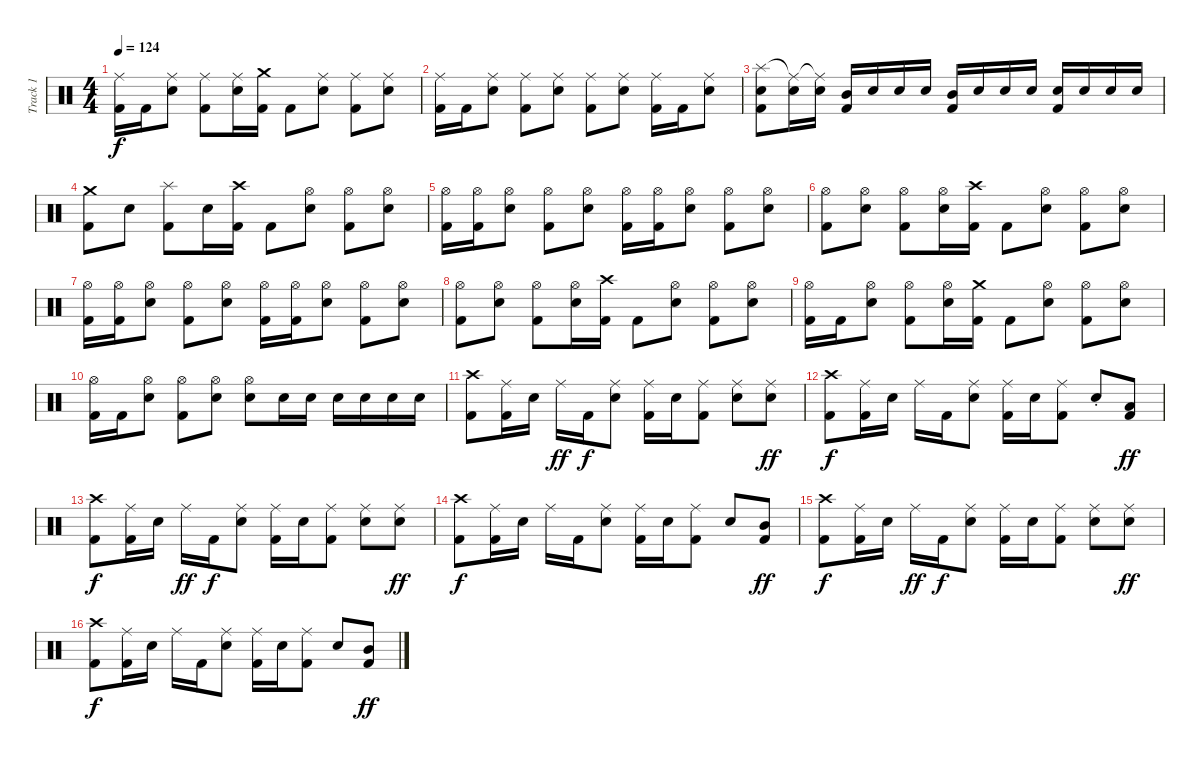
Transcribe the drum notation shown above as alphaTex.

\track ("Track 1" "Track 1") {instrument percussion}
\staff {score}
\articulation defaults
\ts (4 4)
\tempo 124
\clef neutral
\ks c
("Ride (middle)" "Kick (hit) 2").16{dy f} "Kick (hit) 2".16 ("Ride (middle)" "Electric Snare (hit)").8 ("Ride (middle)" "Kick (hit) 2").8 ("Ride (middle)" "Electric Snare (hit)").16 ("Crash medium (hit)" "Kick (hit) 2").16 "Kick (hit) 2".8 ("Ride (middle)" "Electric Snare (hit)").8 ("Ride (middle)" "Kick (hit) 2").8 ("Ride (middle)" "Electric Snare (hit)").8 |
("Ride (middle)" "Kick (hit) 2").16 "Kick (hit) 2".16 ("Ride (middle)" "Electric Snare (hit)").8 ("Ride (middle)" "Kick (hit) 2").8 ("Ride (middle)" "Electric Snare (hit)").8 ("Ride (middle)" "Kick (hit) 2").8 ("Ride (middle)" "Electric Snare (hit)").8 ("Ride (middle)" "Kick (hit) 2").16 "Kick (hit) 2".16 ("Ride (middle)" "Electric Snare (hit)").8 |
("Splash (hit)" "Electric Snare (hit)" "Kick (hit) 2").8 ("Ride (middle)"{t} "Electric Snare (hit)").16 ("Ride (middle)"{t} "Electric Snare (hit)").16 ("Mid Tom (hit)" "Kick (hit) 2").16 "Electric Snare (hit)".16 "Electric Snare (hit)".16 "Electric Snare (hit)".16 ("Mid Tom (hit)" "Kick (hit) 2").16 "Electric Snare (hit)".16 "Electric Snare (hit)".16 "Electric Snare (hit)".16 ("Electric Snare (hit)" "Kick (hit) 2").16 "Electric Snare (hit)".16 "Electric Snare (hit)".16 "Electric Snare (hit)".16 |
("Crash medium (hit)" "Kick (hit) 2").8 "Electric Snare (hit)".8 ("Splash (hit)" "Kick (hit) 2").8 "Electric Snare (hit)".16 ("Crash high (hit)" "Kick (hit) 2").16 "Kick (hit) 2".8 ("Hi-Hat (open)" "Electric Snare (hit)").8 ("Hi-Hat (open)" "Kick (hit) 2").8 ("Hi-Hat (open)" "Electric Snare (hit)").8 |
("Hi-Hat (open)" "Kick (hit) 2").16 ("Hi-Hat (open)" "Kick (hit) 2").16 ("Hi-Hat (open)" "Electric Snare (hit)").8 ("Hi-Hat (open)" "Kick (hit) 2").8 ("Hi-Hat (open)" "Electric Snare (hit)").8 ("Hi-Hat (open)" "Kick (hit) 2").16 ("Hi-Hat (open)" "Kick (hit) 2").16 ("Hi-Hat (open)" "Electric Snare (hit)").8 ("Hi-Hat (open)" "Kick (hit) 2").8 ("Hi-Hat (open)" "Electric Snare (hit)").8 |
("Hi-Hat (open)" "Kick (hit) 2").8 ("Hi-Hat (open)" "Electric Snare (hit)").8 ("Hi-Hat (open)" "Kick (hit) 2").8 ("Hi-Hat (open)" "Electric Snare (hit)").16 ("Crash high (hit)" "Kick (hit) 2").16 "Kick (hit) 2".8 ("Hi-Hat (open)" "Electric Snare (hit)").8 ("Hi-Hat (open)" "Kick (hit) 2").8 ("Hi-Hat (open)" "Electric Snare (hit)").8 |
("Hi-Hat (open)" "Kick (hit) 2").16 ("Hi-Hat (open)" "Kick (hit) 2").16 ("Hi-Hat (open)" "Electric Snare (hit)").8 ("Hi-Hat (open)" "Kick (hit) 2").8 ("Hi-Hat (open)" "Electric Snare (hit)").8 ("Hi-Hat (open)" "Kick (hit) 2").16 ("Hi-Hat (open)" "Kick (hit) 2").16 ("Hi-Hat (open)" "Electric Snare (hit)").8 ("Hi-Hat (open)" "Kick (hit) 2").8 ("Hi-Hat (open)" "Electric Snare (hit)").8 |
("Hi-Hat (open)" "Kick (hit) 2").8 ("Hi-Hat (open)" "Electric Snare (hit)").8 ("Hi-Hat (open)" "Kick (hit) 2").8 ("Hi-Hat (open)" "Electric Snare (hit)").16 ("Crash high (hit)" "Kick (hit) 2").16 "Kick (hit) 2".8 ("Hi-Hat (open)" "Electric Snare (hit)").8 ("Hi-Hat (open)" "Kick (hit) 2").8 ("Hi-Hat (open)" "Electric Snare (hit)").8 |
("Hi-Hat (open)" "Kick (hit) 2").16 "Kick (hit) 2".16 ("Hi-Hat (open)" "Electric Snare (hit)").8 ("Hi-Hat (open)" "Kick (hit) 2").8 ("Hi-Hat (open)" "Electric Snare (hit)").16 ("Crash medium (hit)" "Kick (hit) 2").16 "Kick (hit) 2".8 ("Hi-Hat (open)" "Electric Snare (hit)").8 ("Hi-Hat (open)" "Kick (hit) 2").8 ("Hi-Hat (open)" "Electric Snare (hit)").8 |
("Hi-Hat (open)" "Kick (hit) 2").16 "Kick (hit) 2".16 ("Hi-Hat (open)" "Electric Snare (hit)").8 ("Hi-Hat (open)" "Kick (hit) 2").8 ("Hi-Hat (open)" "Electric Snare (hit)").8 ("Hi-Hat (open)" "Electric Snare (hit)").8 "Electric Snare (hit)".16 "Electric Snare (hit)".16 "Electric Snare (hit)".16 "Electric Snare (hit)".16 "Electric Snare (hit)".16 "Electric Snare (hit)".16 |
("Crash high (hit)" "Kick (hit) 2").8 ("Ride (middle)" "Kick (hit) 2").16 "Electric Snare (hit)".16 "Ride (middle)".16{dy ff} "Kick (hit) 2".16{dy f} ("Ride (middle)" "Electric Snare (hit)").8 ("Ride (middle)" "Kick (hit) 2").16 "Electric Snare (hit)".16 ("Ride (middle)" "Kick (hit) 2").8 ("Ride (middle)" "Electric Snare (hit)").8 ("Ride (middle)" "Electric Snare (hit)").8{dy ff} |
("Crash high (hit)" "Kick (hit) 2").8{dy f} ("Ride (middle)" "Kick (hit) 2").16 "Electric Snare (hit)".16 "Ride (middle)".16 "Kick (hit) 2".16 ("Ride (middle)" "Electric Snare (hit)").8 ("Ride (middle)" "Kick (hit) 2").16 "Electric Snare (hit)".16 ("Ride (middle)" "Kick (hit) 2").8 "Electric Snare (hit)"{st}.8 ("Low Tom (hit)" "Kick (hit) 2").8{dy ff} |
("Crash high (hit)" "Kick (hit) 2").8{dy f} ("Ride (middle)" "Kick (hit) 2").16 "Electric Snare (hit)".16 "Ride (middle)".16{dy ff} "Kick (hit) 2".16{dy f} ("Ride (middle)" "Electric Snare (hit)").8 ("Ride (middle)" "Kick (hit) 2").16 "Electric Snare (hit)".16 ("Ride (middle)" "Kick (hit) 2").8 ("Ride (middle)" "Electric Snare (hit)").8 ("Ride (middle)" "Electric Snare (hit)").8{dy ff} |
("Crash high (hit)" "Kick (hit) 2").8{dy f} ("Ride (middle)" "Kick (hit) 2").16 "Electric Snare (hit)".16 "Ride (middle)".16 "Kick (hit) 2".16 ("Ride (middle)" "Electric Snare (hit)").8 ("Ride (middle)" "Kick (hit) 2").16 "Electric Snare (hit)".16 ("Ride (middle)" "Kick (hit) 2").8 "Electric Snare (hit)".8 ("Mid Tom (hit)" "Kick (hit) 2").8{dy ff} |
("Crash high (hit)" "Kick (hit) 2").8{dy f} ("Ride (middle)" "Kick (hit) 2").16 "Electric Snare (hit)".16 "Ride (middle)".16{dy ff} "Kick (hit) 2".16{dy f} ("Ride (middle)" "Electric Snare (hit)").8 ("Ride (middle)" "Kick (hit) 2").16 "Electric Snare (hit)".16 ("Ride (middle)" "Kick (hit) 2").8 ("Ride (middle)" "Electric Snare (hit)").8 ("Ride (middle)" "Electric Snare (hit)").8{dy ff} |
("Crash high (hit)" "Kick (hit) 2").8{dy f} ("Ride (middle)" "Kick (hit) 2").16 "Electric Snare (hit)".16 "Ride (middle)".16 "Kick (hit) 2".16 ("Ride (middle)" "Electric Snare (hit)").8 ("Ride (middle)" "Kick (hit) 2").16 "Electric Snare (hit)".16 ("Ride (middle)" "Kick (hit) 2").8 "Electric Snare (hit)".8 ("Mid Tom (hit)" "Kick (hit) 2").8{dy ff}
